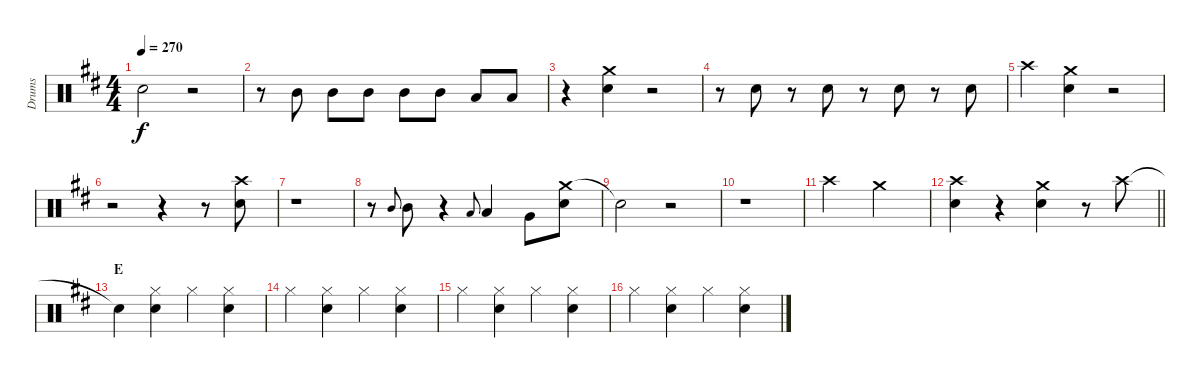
\track ("Drums" "Drums") {instrument percussion}
\staff {score}
\articulation defaults
\ts (4 4)
\tempo 270
\clef neutral
\ks d "Snare (hit)"{t}.2{dy f}
r.2 |
r.8 "Mid Tom (hit)".8 "Mid Tom (hit)".8 "Mid Tom (hit)".8 "Mid Tom (hit)".8 "Mid Tom (hit)".8 "Low Tom (hit)".8 "Low Tom (hit)".8 |
r.4 ("Crash medium (hit)" "Snare (hit) 2").4 r.2 |
r.8 "Snare (hit) 2".8 r.8 "Snare (hit) 2".8 r.8 "Snare (hit) 2".8 r.8 "Snare (hit) 2".8 |
"Crash high (hit)".4 ("Crash medium (hit)" "Snare (hit) 2").4 r.2 |
r.2 r.4 r.8 ("Crash high (hit)" "Snare (hit) 2").8 |
r.1 |
r.8 "Mid Tom (hit)".8{gr onbeat} "Mid Tom (hit)".8 r.4 "Low Tom (hit)".8{gr onbeat} "Low Tom (hit)".4 "Very Low Tom (hit)".8 ("Crash medium (hit)" "Snare (hit) 2").8 |
"Snare (hit)"{t}.2 r.2 |
r.1 |
"Crash high (hit)".2 "Crash medium (hit)".2 |
\barLineRight lightlight
("Crash high (hit)" "Snare (hit) 2").4 r.4 ("Crash medium (hit)" "Snare (hit) 2").4 r.8 "Crash high (hit)".8 |
\section ("" "E")
"Snare (hit)"{t}.4 ("Hi-Hat (closed)" "Snare (hit) 2").4 "Hi-Hat (closed)".4 ("Hi-Hat (closed)" "Snare (hit) 2").4 |
"Hi-Hat (closed)".4 ("Hi-Hat (closed)" "Snare (hit) 2").4 "Hi-Hat (closed)".4 ("Hi-Hat (closed)" "Snare (hit) 2").4 |
"Hi-Hat (closed)".4 ("Hi-Hat (closed)" "Snare (hit) 2").4 "Hi-Hat (closed)".4 ("Hi-Hat (closed)" "Snare (hit) 2").4 |
"Hi-Hat (closed)".4 ("Hi-Hat (closed)" "Snare (hit) 2").4 "Hi-Hat (closed)".4 ("Hi-Hat (closed)" "Snare (hit) 2").4
